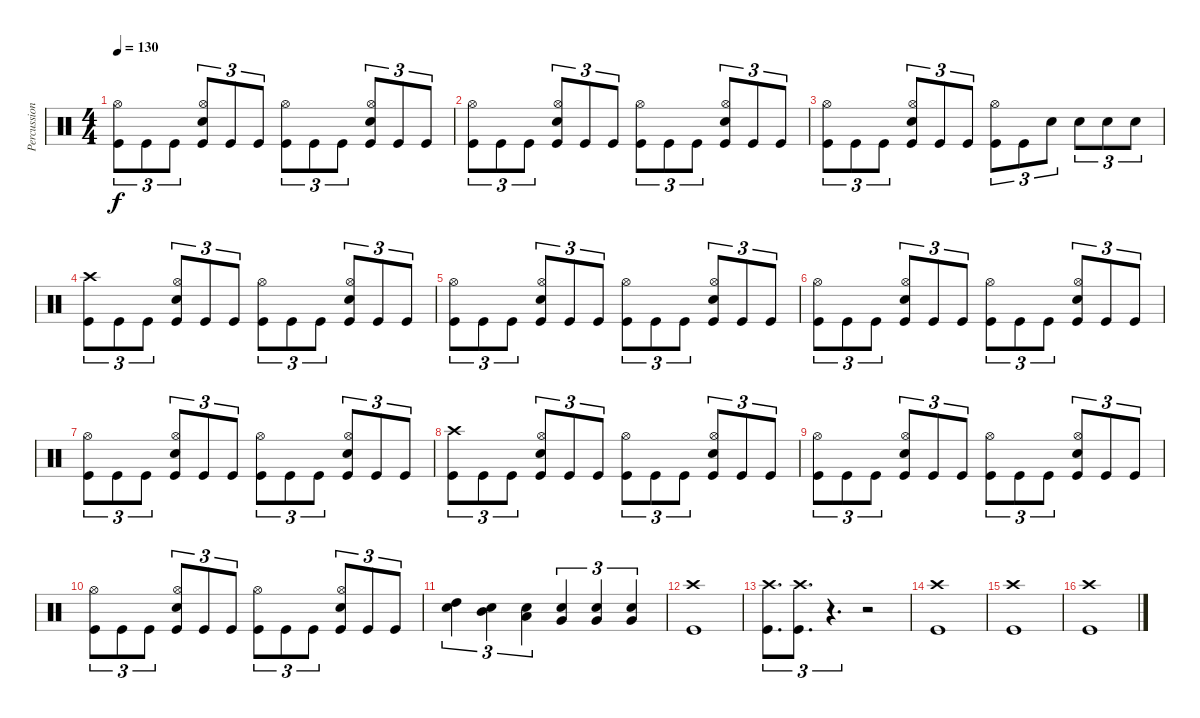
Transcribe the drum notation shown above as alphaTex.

\track ("Percussioni" "Percussion") {instrument percussion}
\staff {score}
\articulation defaults
\ts (4 4)
\tempo 130
\clef neutral
\ks c
("Kick (hit)" "Hi-Hat (open)").8{tu (3 2) dy f} "Kick (hit)".8{tu (3 2)} "Kick (hit)".8{tu (3 2)} ("Kick (hit)" "Snare (hit) 2" "Hi-Hat (open)").8{tu (3 2)} "Kick (hit)".8{tu (3 2)} "Kick (hit)".8{tu (3 2)} ("Kick (hit)" "Hi-Hat (open)").8{tu (3 2)} "Kick (hit)".8{tu (3 2)} "Kick (hit)".8{tu (3 2)} ("Kick (hit)" "Snare (hit) 2" "Hi-Hat (open)").8{tu (3 2)} "Kick (hit)".8{tu (3 2)} "Kick (hit)".8{tu (3 2)} |
("Kick (hit)" "Hi-Hat (open)").8{tu (3 2)} "Kick (hit)".8{tu (3 2)} "Kick (hit)".8{tu (3 2)} ("Kick (hit)" "Snare (hit) 2" "Hi-Hat (open)").8{tu (3 2)} "Kick (hit)".8{tu (3 2)} "Kick (hit)".8{tu (3 2)} ("Kick (hit)" "Hi-Hat (open)").8{tu (3 2)} "Kick (hit)".8{tu (3 2)} "Kick (hit)".8{tu (3 2)} ("Kick (hit)" "Snare (hit) 2" "Hi-Hat (open)").8{tu (3 2)} "Kick (hit)".8{tu (3 2)} "Kick (hit)".8{tu (3 2)} |
("Kick (hit)" "Hi-Hat (open)").8{tu (3 2)} "Kick (hit)".8{tu (3 2)} "Kick (hit)".8{tu (3 2)} ("Kick (hit)" "Snare (hit) 2" "Hi-Hat (open)").8{tu (3 2)} "Kick (hit)".8{tu (3 2)} "Kick (hit)".8{tu (3 2)} ("Kick (hit)" "Hi-Hat (open)").8{tu (3 2)} "Kick (hit)".8{tu (3 2)} "Snare (hit) 2".8{tu (3 2)} "Snare (hit) 2".8{tu (3 2)} "Snare (hit) 2".8{tu (3 2)} "Snare (hit) 2".8{tu (3 2)} |
("Kick (hit)" "Crash high (hit)").8{tu (3 2)} "Kick (hit)".8{tu (3 2)} "Kick (hit)".8{tu (3 2)} ("Kick (hit)" "Snare (hit) 2" "Hi-Hat (open)").8{tu (3 2)} "Kick (hit)".8{tu (3 2)} "Kick (hit)".8{tu (3 2)} ("Kick (hit)" "Hi-Hat (open)").8{tu (3 2)} "Kick (hit)".8{tu (3 2)} "Kick (hit)".8{tu (3 2)} ("Kick (hit)" "Snare (hit) 2" "Hi-Hat (open)").8{tu (3 2)} "Kick (hit)".8{tu (3 2)} "Kick (hit)".8{tu (3 2)} |
("Kick (hit)" "Hi-Hat (open)").8{tu (3 2)} "Kick (hit)".8{tu (3 2)} "Kick (hit)".8{tu (3 2)} ("Kick (hit)" "Snare (hit) 2" "Hi-Hat (open)").8{tu (3 2)} "Kick (hit)".8{tu (3 2)} "Kick (hit)".8{tu (3 2)} ("Kick (hit)" "Hi-Hat (open)").8{tu (3 2)} "Kick (hit)".8{tu (3 2)} "Kick (hit)".8{tu (3 2)} ("Kick (hit)" "Snare (hit) 2" "Hi-Hat (open)").8{tu (3 2)} "Kick (hit)".8{tu (3 2)} "Kick (hit)".8{tu (3 2)} |
("Kick (hit)" "Hi-Hat (open)").8{tu (3 2)} "Kick (hit)".8{tu (3 2)} "Kick (hit)".8{tu (3 2)} ("Kick (hit)" "Snare (hit) 2" "Hi-Hat (open)").8{tu (3 2)} "Kick (hit)".8{tu (3 2)} "Kick (hit)".8{tu (3 2)} ("Kick (hit)" "Hi-Hat (open)").8{tu (3 2)} "Kick (hit)".8{tu (3 2)} "Kick (hit)".8{tu (3 2)} ("Kick (hit)" "Snare (hit) 2" "Hi-Hat (open)").8{tu (3 2)} "Kick (hit)".8{tu (3 2)} "Kick (hit)".8{tu (3 2)} |
("Kick (hit)" "Hi-Hat (open)").8{tu (3 2)} "Kick (hit)".8{tu (3 2)} "Kick (hit)".8{tu (3 2)} ("Kick (hit)" "Snare (hit) 2" "Hi-Hat (open)").8{tu (3 2)} "Kick (hit)".8{tu (3 2)} "Kick (hit)".8{tu (3 2)} ("Kick (hit)" "Hi-Hat (open)").8{tu (3 2)} "Kick (hit)".8{tu (3 2)} "Kick (hit)".8{tu (3 2)} ("Kick (hit)" "Snare (hit) 2" "Hi-Hat (open)").8{tu (3 2)} "Kick (hit)".8{tu (3 2)} "Kick (hit)".8{tu (3 2)} |
("Kick (hit)" "Crash high (hit)").8{tu (3 2)} "Kick (hit)".8{tu (3 2)} "Kick (hit)".8{tu (3 2)} ("Kick (hit)" "Snare (hit) 2" "Hi-Hat (open)").8{tu (3 2)} "Kick (hit)".8{tu (3 2)} "Kick (hit)".8{tu (3 2)} ("Kick (hit)" "Hi-Hat (open)").8{tu (3 2)} "Kick (hit)".8{tu (3 2)} "Kick (hit)".8{tu (3 2)} ("Kick (hit)" "Snare (hit) 2" "Hi-Hat (open)").8{tu (3 2)} "Kick (hit)".8{tu (3 2)} "Kick (hit)".8{tu (3 2)} |
("Kick (hit)" "Hi-Hat (open)").8{tu (3 2)} "Kick (hit)".8{tu (3 2)} "Kick (hit)".8{tu (3 2)} ("Kick (hit)" "Snare (hit) 2" "Hi-Hat (open)").8{tu (3 2)} "Kick (hit)".8{tu (3 2)} "Kick (hit)".8{tu (3 2)} ("Kick (hit)" "Hi-Hat (open)").8{tu (3 2)} "Kick (hit)".8{tu (3 2)} "Kick (hit)".8{tu (3 2)} ("Kick (hit)" "Snare (hit) 2" "Hi-Hat (open)").8{tu (3 2)} "Kick (hit)".8{tu (3 2)} "Kick (hit)".8{tu (3 2)} |
("Kick (hit)" "Hi-Hat (open)").8{tu (3 2)} "Kick (hit)".8{tu (3 2)} "Kick (hit)".8{tu (3 2)} ("Kick (hit)" "Snare (hit) 2" "Hi-Hat (open)").8{tu (3 2)} "Kick (hit)".8{tu (3 2)} "Kick (hit)".8{tu (3 2)} ("Kick (hit)" "Hi-Hat (open)").8{tu (3 2)} "Kick (hit)".8{tu (3 2)} "Kick (hit)".8{tu (3 2)} ("Kick (hit)" "Snare (hit) 2" "Hi-Hat (open)").8{tu (3 2)} "Kick (hit)".8{tu (3 2)} "Kick (hit)".8{tu (3 2)} |
("High Tom (hit)" "Snare (hit) 2").4{tu (3 2)} ("Mid Tom (hit)" "Snare (hit) 2").4{tu (3 2)} ("Low Tom (hit)" "Snare (hit) 2").4{tu (3 2)} ("Very Low Tom (hit)" "Snare (hit) 2").4{tu (3 2)} ("Very Low Tom (hit)" "Snare (hit) 2").4{tu (3 2)} ("Very Low Tom (hit)" "Snare (hit) 2").4{tu (3 2)} |
("Kick (hit)" "Crash high (hit)").1 |
("Kick (hit)" "Crash high (hit)").8{d tu (3 2)} ("Kick (hit)" "Crash high (hit)").8{d tu (3 2)} r.4{d tu (3 2)} r.2 |
("Kick (hit)" "Crash high (hit)").1 |
("Kick (hit)" "Crash high (hit)").1 |
("Kick (hit)" "Crash high (hit)").1
